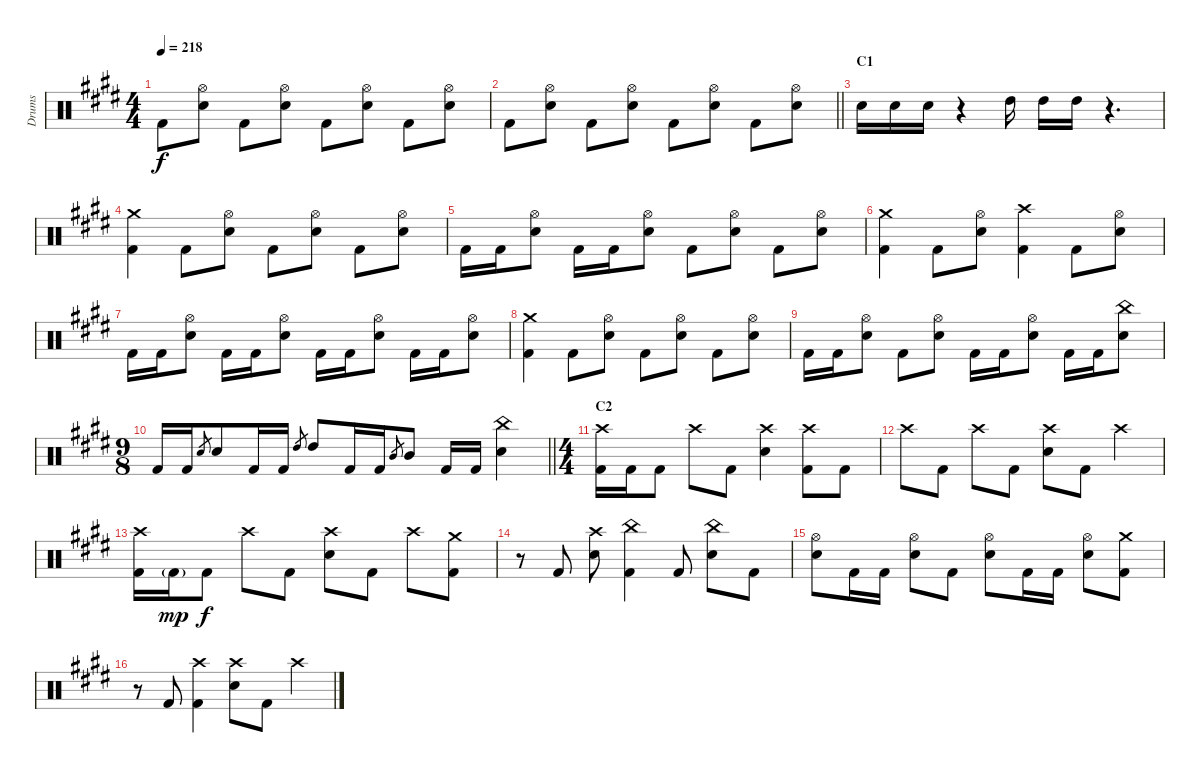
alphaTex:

\track ("Drums" "Drums") {instrument percussion}
\staff {score}
\articulation defaults
\ts (4 4)
\tempo 218
\clef neutral
\ks c#minor "Kick (hit) 2".8{dy f}
("Hi-Hat (open)" "Snare (hit) 2").8 "Kick (hit) 2".8 ("Hi-Hat (open)" "Snare (hit) 2").8 "Kick (hit) 2".8 ("Hi-Hat (open)" "Snare (hit) 2").8 "Kick (hit) 2".8 ("Hi-Hat (open)" "Snare (hit) 2").8 |
\barLineRight lightlight "Kick (hit) 2".8
("Hi-Hat (open)" "Snare (hit) 2").8 "Kick (hit) 2".8 ("Hi-Hat (open)" "Snare (hit) 2").8 "Kick (hit) 2".8 ("Hi-Hat (open)" "Snare (hit) 2").8 "Kick (hit) 2".8 ("Hi-Hat (open)" "Snare (hit) 2").8 |
\section ("" "C1")
"Snare (hit) 2".16 "Snare (hit) 2".16 "Snare (hit) 2".16 r.4 "High Tom (hit)".16 "High Tom (hit)".16 "High Tom (hit)".16 r.4{d} |
("Crash medium (hit)" "Kick (hit) 2").4 "Kick (hit) 2".8 ("Hi-Hat (open)" "Snare (hit) 2").8 "Kick (hit) 2".8 ("Hi-Hat (open)" "Snare (hit) 2").8 "Kick (hit) 2".8 ("Hi-Hat (open)" "Snare (hit) 2").8 |
"Kick (hit) 2".16 "Kick (hit) 2".16 ("Hi-Hat (open)" "Snare (hit) 2").8 "Kick (hit) 2".16 "Kick (hit) 2".16 ("Hi-Hat (open)" "Snare (hit) 2").8 "Kick (hit) 2".8 ("Hi-Hat (open)" "Snare (hit) 2").8 "Kick (hit) 2".8 ("Hi-Hat (open)" "Snare (hit) 2").8 |
("Crash medium (hit)" "Kick (hit) 2").4 "Kick (hit) 2".8 ("Hi-Hat (open)" "Snare (hit) 2").8 ("Crash high (hit)" "Kick (hit) 2").4 "Kick (hit) 2".8 ("Hi-Hat (open)" "Snare (hit) 2").8 |
"Kick (hit) 2".16 "Kick (hit) 2".16 ("Hi-Hat (open)" "Snare (hit) 2").8 "Kick (hit) 2".16 "Kick (hit) 2".16 ("Hi-Hat (open)" "Snare (hit) 2").8 "Kick (hit) 2".16 "Kick (hit) 2".16 ("Hi-Hat (open)" "Snare (hit) 2").8 "Kick (hit) 2".16 "Kick (hit) 2".16 ("Hi-Hat (open)" "Snare (hit) 2").8 |
("Crash medium (hit)" "Kick (hit) 2").4 "Kick (hit) 2".8 ("Hi-Hat (open)" "Snare (hit) 2").8 "Kick (hit) 2".8 ("Hi-Hat (open)" "Snare (hit) 2").8 "Kick (hit) 2".8 ("Hi-Hat (open)" "Snare (hit) 2").8 |
"Kick (hit) 2".16 "Kick (hit) 2".16 ("Hi-Hat (open)" "Snare (hit) 2").8 "Kick (hit) 2".8 ("Hi-Hat (open)" "Snare (hit) 2").8 "Kick (hit) 2".16 "Kick (hit) 2".16 ("Hi-Hat (open)" "Snare (hit) 2").8 "Kick (hit) 2".16 "Kick (hit) 2".16 ("China (hit)" "Snare (hit) 2").8 |
\ts (9 8)
\barLineRight lightlight "Kick (hit) 2".16 "Kick (hit) 2".16 "Snare (hit) 2".8{gr} "Snare (hit) 2".8 "Kick (hit) 2".16 "Kick (hit) 2".16 "High Tom (hit)".8{gr} "High Tom (hit)".8 "Kick (hit) 2".16 "Kick (hit) 2".16 "Mid Tom (hit)".8{gr} "Mid Tom (hit)".8 "Kick (hit) 2".16 "Kick (hit) 2".16
("China (hit)" "Snare (hit) 2").4 |
\ts (4 4)
\section ("" "C2")
("Crash high (hit)" "Kick (hit) 2").16 "Kick (hit) 2".16 "Kick (hit) 2".8 "Crash high (hit)".8 "Kick (hit) 2".8 ("Crash high (hit)" "Snare (hit) 2").4 ("Crash high (hit)" "Kick (hit) 2").8 "Kick (hit) 2".8 |
"Crash high (hit)".8 "Kick (hit) 2".8 "Crash high (hit)".8 "Kick (hit) 2".8 ("Crash high (hit)" "Snare (hit) 2").8 "Kick (hit) 2".8 "Crash high (hit)".4 |
("Crash high (hit)" "Kick (hit) 2").16 "Kick (hit) 2"{g}.16{dy mp} "Kick (hit) 2".8{dy f} "Crash high (hit)".8 "Kick (hit) 2".8 ("Crash high (hit)" "Snare (hit) 2").8 "Kick (hit) 2".8 "Crash high (hit)".8 ("Crash medium (hit)" "Kick (hit) 2").8 |
r.8 "Kick (hit) 2".8 ("Crash high (hit)" "Snare (hit) 2").8 ("China (hit)" "Kick (hit) 2").4 "Kick (hit) 2".8 ("China (hit)" "Snare (hit) 2").8 "Kick (hit) 2".8 |
("Hi-Hat (open)" "Snare (hit) 2").8 "Kick (hit) 2".16 "Kick (hit) 2".16 ("Hi-Hat (open)" "Snare (hit) 2").8 "Kick (hit) 2".8 ("Hi-Hat (open)" "Snare (hit) 2").8 "Kick (hit) 2".16 "Kick (hit) 2".16 ("Hi-Hat (open)" "Snare (hit) 2").8 ("Crash medium (hit)" "Kick (hit) 2").8 |
r.8 "Kick (hit) 2".8 ("Crash high (hit)" "Kick (hit) 2").4 ("Crash high (hit)" "Snare (hit) 2").8 "Kick (hit) 2".8 "Crash high (hit)".4
